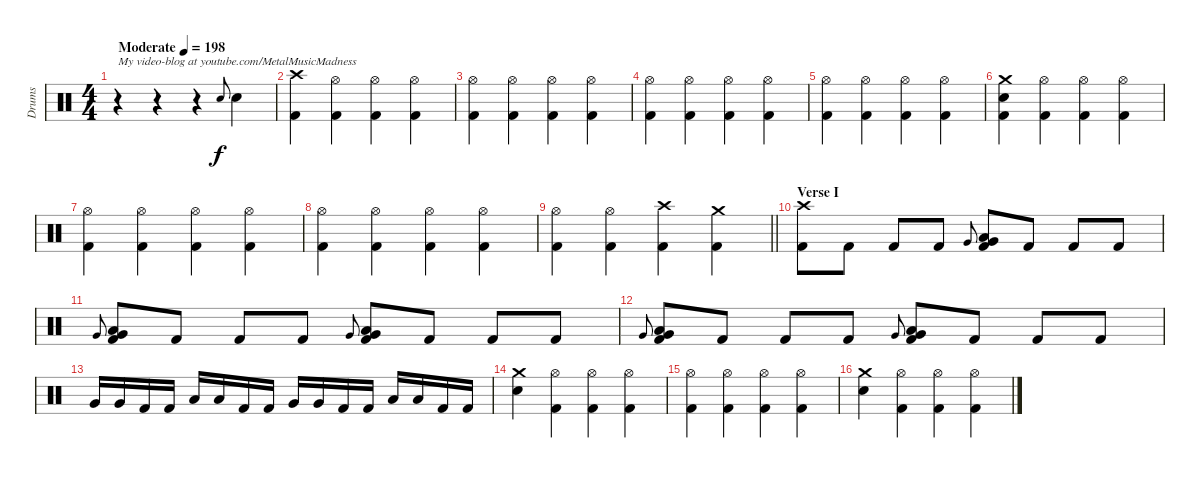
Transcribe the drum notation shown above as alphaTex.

\track ("Drums" "Drums") {instrument percussion}
\staff {score}
\articulation defaults
\ts (4 4)
\tempo (198 "Moderate")
\clef neutral
\ks c
r.4{txt "My video-blog at youtube.com/MetalMusicMadness" dy f} r.4 r.4 "Electric Snare (hit)".8{gr onbeat} "Electric Snare (hit)".4 |
("Crash high (hit)" "Kick (hit) 2").4 ("Hi-Hat (open)" "Kick (hit) 2").4 ("Hi-Hat (open)" "Kick (hit) 2").4 ("Hi-Hat (open)" "Kick (hit) 2").4 |
("Hi-Hat (open)" "Kick (hit) 2").4 ("Hi-Hat (open)" "Kick (hit) 2").4 ("Hi-Hat (open)" "Kick (hit) 2").4 ("Hi-Hat (open)" "Kick (hit) 2").4 |
("Hi-Hat (open)" "Kick (hit) 2").4 ("Hi-Hat (open)" "Kick (hit) 2").4 ("Hi-Hat (open)" "Kick (hit) 2").4 ("Hi-Hat (open)" "Kick (hit) 2").4 |
("Hi-Hat (open)" "Kick (hit) 2").4 ("Hi-Hat (open)" "Kick (hit) 2").4 ("Hi-Hat (open)" "Kick (hit) 2").4 ("Hi-Hat (open)" "Kick (hit) 2").4 |
("Crash medium (hit)" "Electric Snare (hit)" "Kick (hit) 2").4 ("Hi-Hat (open)" "Kick (hit) 2").4 ("Hi-Hat (open)" "Kick (hit) 2").4 ("Hi-Hat (open)" "Kick (hit) 2").4 |
("Hi-Hat (open)" "Kick (hit) 2").4 ("Hi-Hat (open)" "Kick (hit) 2").4 ("Hi-Hat (open)" "Kick (hit) 2").4 ("Hi-Hat (open)" "Kick (hit) 2").4 |
("Hi-Hat (open)" "Kick (hit) 2").4 ("Hi-Hat (open)" "Kick (hit) 2").4 ("Hi-Hat (open)" "Kick (hit) 2").4 ("Hi-Hat (open)" "Kick (hit) 2").4 |
\barLineRight lightlight
("Hi-Hat (open)" "Kick (hit) 2").4 ("Hi-Hat (open)" "Kick (hit) 2").4 ("Crash high (hit)" "Kick (hit) 2").4 ("Crash medium (hit)" "Kick (hit) 2").4 |
\section ("" "Verse I")
("Crash high (hit)" "Kick (hit) 2").8 "Kick (hit) 2".8 "Kick (hit) 2".8 "Kick (hit) 2".8 "Very Low Tom (hit)".8{gr onbeat} ("Very Low Tom (hit)" "Low Floor Tom (hit)" "Kick (hit) 2").8 "Kick (hit) 2".8 "Kick (hit) 2".8 "Kick (hit) 2".8 |
"Very Low Tom (hit)".8{gr onbeat} ("Very Low Tom (hit)" "Low Floor Tom (hit)" "Kick (hit) 2").8 "Kick (hit) 2".8 "Kick (hit) 2".8 "Kick (hit) 2".8 "Very Low Tom (hit)".8{gr onbeat} ("Very Low Tom (hit)" "Low Floor Tom (hit)" "Kick (hit) 2").8 "Kick (hit) 2".8 "Kick (hit) 2".8 "Kick (hit) 2".8 |
"Very Low Tom (hit)".8{gr onbeat} ("Very Low Tom (hit)" "Low Floor Tom (hit)" "Kick (hit) 2").8 "Kick (hit) 2".8 "Kick (hit) 2".8 "Kick (hit) 2".8 "Very Low Tom (hit)".8{gr onbeat} ("Very Low Tom (hit)" "Low Floor Tom (hit)" "Kick (hit) 2").8 "Kick (hit) 2".8 "Kick (hit) 2".8 "Kick (hit) 2".8 |
"Very Low Tom (hit)".16 "Very Low Tom (hit)".16 "Kick (hit) 2".16 "Kick (hit) 2".16 "Low Floor Tom (hit)".16 "Low Floor Tom (hit)".16 "Kick (hit) 2".16 "Kick (hit) 2".16 "Very Low Tom (hit)".16 "Very Low Tom (hit)".16 "Kick (hit) 2".16 "Kick (hit) 2".16 "Low Floor Tom (hit)".16 "Low Floor Tom (hit)".16 "Kick (hit) 2".16 "Kick (hit) 2".16 |
("Crash medium (hit)" "Electric Snare (hit)").4 ("Hi-Hat (open)" "Kick (hit) 2").4 ("Hi-Hat (open)" "Kick (hit) 2").4 ("Hi-Hat (open)" "Kick (hit) 2").4 |
("Hi-Hat (open)" "Kick (hit) 2").4 ("Hi-Hat (open)" "Kick (hit) 2").4 ("Hi-Hat (open)" "Kick (hit) 2").4 ("Hi-Hat (open)" "Kick (hit) 2").4 |
("Crash medium (hit)" "Electric Snare (hit)").4 ("Hi-Hat (open)" "Kick (hit) 2").4 ("Hi-Hat (open)" "Kick (hit) 2").4 ("Hi-Hat (open)" "Kick (hit) 2").4
